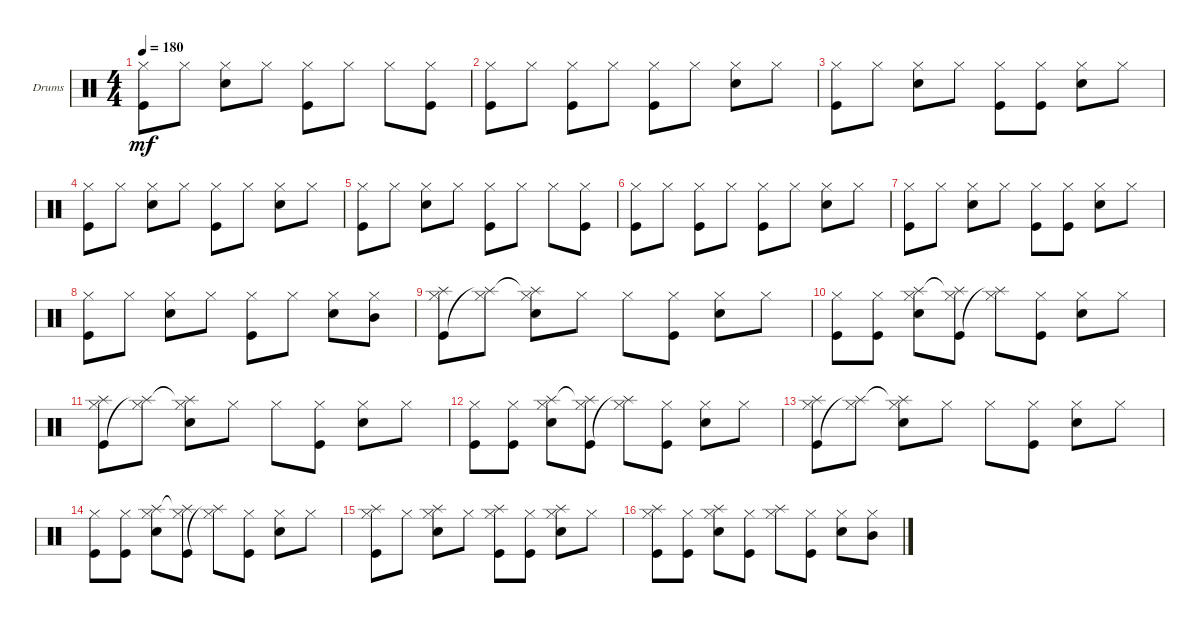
\bracketExtendMode groupsimilarinstruments
\firstSystemTrackNameOrientation horizontal
\otherSystemsTrackNameOrientation horizontal
\track ("Drumkit" "Drums") {instrument percussion}
\staff {score}
\articulation defaults
\ts (4 4)
\tempo 180
\clef neutral
\ks c
("Hi-Hat (closed)" "Kick (hit)").8{dy mf} "Hi-Hat (closed)".8 ("Hi-Hat (closed)" "Snare (hit) 2").8 "Hi-Hat (closed)".8 ("Hi-Hat (closed)" "Kick (hit)").8 "Hi-Hat (closed)".8 "Hi-Hat (closed)".8 ("Hi-Hat (closed)" "Kick (hit)").8 |
("Hi-Hat (closed)" "Kick (hit)").8 "Hi-Hat (closed)".8 ("Hi-Hat (closed)" "Kick (hit)").8 "Hi-Hat (closed)".8 ("Hi-Hat (closed)" "Kick (hit)").8 "Hi-Hat (closed)".8 ("Hi-Hat (closed)" "Snare (hit) 2").8 "Hi-Hat (closed)".8 |
("Hi-Hat (closed)" "Kick (hit)").8 "Hi-Hat (closed)".8 ("Hi-Hat (closed)" "Snare (hit) 2").8 "Hi-Hat (closed)".8 ("Hi-Hat (closed)" "Kick (hit)").8 ("Hi-Hat (closed)" "Kick (hit)").8 ("Hi-Hat (closed)" "Snare (hit) 2").8 "Hi-Hat (closed)".8 |
("Hi-Hat (closed)" "Kick (hit)").8 "Hi-Hat (closed)".8 ("Hi-Hat (closed)" "Snare (hit) 2").8 "Hi-Hat (closed)".8 ("Hi-Hat (closed)" "Kick (hit)").8 "Hi-Hat (closed)".8 ("Hi-Hat (closed)" "Snare (hit) 2").8 "Hi-Hat (closed)".8 |
("Hi-Hat (closed)" "Kick (hit)").8 "Hi-Hat (closed)".8 ("Hi-Hat (closed)" "Snare (hit) 2").8 "Hi-Hat (closed)".8 ("Hi-Hat (closed)" "Kick (hit)").8 "Hi-Hat (closed)".8 "Hi-Hat (closed)".8 ("Hi-Hat (closed)" "Kick (hit)").8 |
("Hi-Hat (closed)" "Kick (hit)").8 "Hi-Hat (closed)".8 ("Hi-Hat (closed)" "Kick (hit)").8 "Hi-Hat (closed)".8 ("Hi-Hat (closed)" "Kick (hit)").8 "Hi-Hat (closed)".8 ("Hi-Hat (closed)" "Snare (hit) 2").8 "Hi-Hat (closed)".8 |
("Hi-Hat (closed)" "Kick (hit)").8 "Hi-Hat (closed)".8 ("Hi-Hat (closed)" "Snare (hit) 2").8 "Hi-Hat (closed)".8 ("Hi-Hat (closed)" "Kick (hit)").8 ("Hi-Hat (closed)" "Kick (hit)").8 ("Hi-Hat (closed)" "Snare (hit) 2").8 "Hi-Hat (closed)".8 |
("Hi-Hat (closed)" "Kick (hit)").8 "Hi-Hat (closed)".8 ("Hi-Hat (closed)" "Snare (hit) 2").8 "Hi-Hat (closed)".8 ("Hi-Hat (closed)" "Kick (hit)").8 "Hi-Hat (closed)".8 ("Hi-Hat (closed)" "Snare (hit) 2").8 ("Hi-Hat (closed)" "Mid Tom (hit)").8 |
("Hi-Hat (closed)" "Kick (hit)" "Splash (hit)").8 ("Hi-Hat (closed)" "Splash (hit)"{t}).8 ("Hi-Hat (closed)" "Splash (hit)"{t} "Snare (hit) 2").8 "Hi-Hat (closed)".8 "Hi-Hat (closed)".8 ("Hi-Hat (closed)" "Kick (hit)").8 ("Hi-Hat (closed)" "Snare (hit) 2").8 "Hi-Hat (closed)".8 |
("Hi-Hat (closed)" "Kick (hit)").8 ("Hi-Hat (closed)" "Kick (hit)").8 ("Hi-Hat (closed)" "Snare (hit) 2" "Splash (hit)").8 ("Hi-Hat (closed)" "Kick (hit)" "Splash (hit)"{t}).8 ("Hi-Hat (closed)" "Splash (hit)"{t}).8 ("Hi-Hat (closed)" "Kick (hit)").8 ("Hi-Hat (closed)" "Snare (hit) 2").8 "Hi-Hat (closed)".8 |
("Hi-Hat (closed)" "Kick (hit)" "Splash (hit)").8 ("Hi-Hat (closed)" "Splash (hit)"{t}).8 ("Hi-Hat (closed)" "Splash (hit)"{t} "Snare (hit) 2").8 "Hi-Hat (closed)".8 "Hi-Hat (closed)".8 ("Hi-Hat (closed)" "Kick (hit)").8 ("Hi-Hat (closed)" "Snare (hit) 2").8 "Hi-Hat (closed)".8 |
("Hi-Hat (closed)" "Kick (hit)").8 ("Hi-Hat (closed)" "Kick (hit)").8 ("Hi-Hat (closed)" "Snare (hit) 2" "Splash (hit)").8 ("Hi-Hat (closed)" "Kick (hit)" "Splash (hit)"{t}).8 ("Hi-Hat (closed)" "Splash (hit)"{t}).8 ("Hi-Hat (closed)" "Kick (hit)").8 ("Hi-Hat (closed)" "Snare (hit) 2").8 "Hi-Hat (closed)".8 |
("Hi-Hat (closed)" "Kick (hit)" "Splash (hit)").8 ("Hi-Hat (closed)" "Splash (hit)"{t}).8 ("Hi-Hat (closed)" "Splash (hit)"{t} "Snare (hit) 2").8 "Hi-Hat (closed)".8 "Hi-Hat (closed)".8 ("Hi-Hat (closed)" "Kick (hit)").8 ("Hi-Hat (closed)" "Snare (hit) 2").8 "Hi-Hat (closed)".8 |
("Hi-Hat (closed)" "Kick (hit)").8 ("Hi-Hat (closed)" "Kick (hit)").8 ("Hi-Hat (closed)" "Snare (hit) 2" "Splash (hit)").8 ("Hi-Hat (closed)" "Kick (hit)" "Splash (hit)"{t}).8 ("Hi-Hat (closed)" "Splash (hit)"{t}).8 ("Hi-Hat (closed)" "Kick (hit)").8 ("Hi-Hat (closed)" "Snare (hit) 2").8 "Hi-Hat (closed)".8 |
("Hi-Hat (closed)" "Kick (hit)" "Splash (hit)").8 "Hi-Hat (closed)".8 ("Hi-Hat (closed)" "Snare (hit) 2" "Splash (hit)").8 "Hi-Hat (closed)".8 ("Hi-Hat (closed)" "Kick (hit)" "Splash (hit)").8 ("Hi-Hat (closed)" "Kick (hit)").8 ("Hi-Hat (closed)" "Snare (hit) 2" "Splash (hit)").8 "Hi-Hat (closed)".8 |
("Hi-Hat (closed)" "Kick (hit)" "Splash (hit)").8 ("Hi-Hat (closed)" "Kick (hit)").8 ("Hi-Hat (closed)" "Snare (hit) 2" "Splash (hit)").8 ("Hi-Hat (closed)" "Kick (hit)").8 ("Hi-Hat (closed)" "Splash (hit)").8 ("Hi-Hat (closed)" "Kick (hit)").8 ("Hi-Hat (closed)" "Snare (hit) 2").8 ("Hi-Hat (closed)" "Mid Tom (hit)").8
